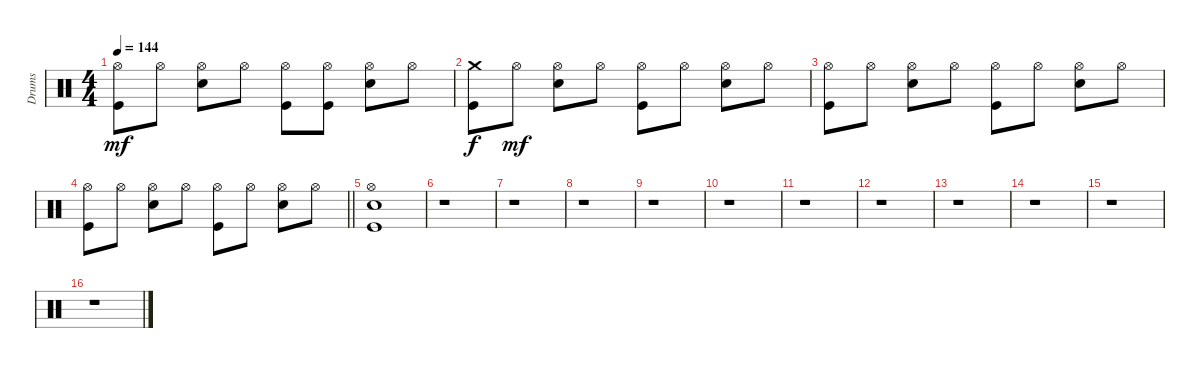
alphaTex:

\track ("Drums" "Drums") {instrument percussion}
\staff {score}
\articulation defaults
\ts (4 4)
\tempo 144
\clef neutral
\ks c
("Hi-Hat (open)" "Kick (hit)").8{dy mf} "Hi-Hat (open)".8 ("Hi-Hat (open)" "Snare (hit) 2").8 "Hi-Hat (open)".8 ("Hi-Hat (open)" "Kick (hit)").8 ("Hi-Hat (open)" "Kick (hit)").8 ("Hi-Hat (open)" "Snare (hit) 2").8 "Hi-Hat (open)".8 |
("Crash medium (hit)" "Kick (hit)").8{dy f} "Hi-Hat (open)".8{dy mf} ("Hi-Hat (open)" "Snare (hit) 2").8 "Hi-Hat (open)".8 ("Hi-Hat (open)" "Kick (hit)").8 "Hi-Hat (open)".8 ("Hi-Hat (open)" "Snare (hit) 2").8 "Hi-Hat (open)".8 |
("Hi-Hat (open)" "Kick (hit)").8 "Hi-Hat (open)".8 ("Hi-Hat (open)" "Snare (hit) 2").8 "Hi-Hat (open)".8 ("Hi-Hat (open)" "Kick (hit)").8 "Hi-Hat (open)".8 ("Hi-Hat (open)" "Snare (hit) 2").8 "Hi-Hat (open)".8 |
\barLineRight lightlight
("Hi-Hat (open)" "Kick (hit)").8 "Hi-Hat (open)".8 ("Hi-Hat (open)" "Snare (hit) 2").8 "Hi-Hat (open)".8 ("Hi-Hat (open)" "Kick (hit)").8 "Hi-Hat (open)".8 ("Hi-Hat (open)" "Snare (hit) 2").8 "Hi-Hat (open)".8 |
("Hi-Hat (open)" "Kick (hit)" "Snare (hit) 2").1 |
r.1 |
r.1 |
r.1 |
r.1 |
r.1 |
r.1 |
r.1 |
r.1 |
r.1 |
r.1 |
r.1
